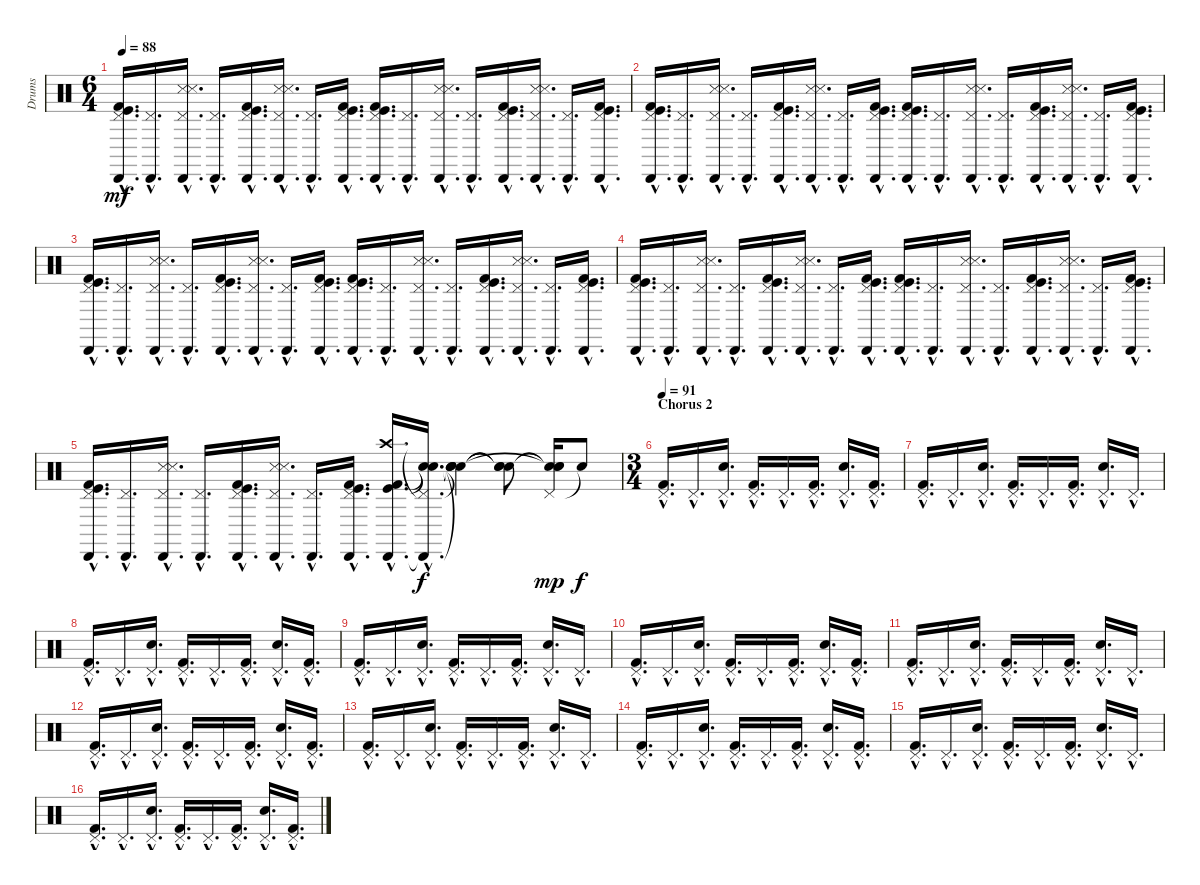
\track ("Drums" "Drums") {instrument percussion}
\staff {score}
\articulation defaults
\ts (6 4)
\tempo 88
\clef neutral
\ks c
("Pedal Hi-Hat (hit)"{hac} "Cabasa (hit)"{hac} "Kick (hit)"{hac} "Kick (hit) 2"{hac}).16{d dy mf} ("Pedal Hi-Hat (hit)"{hac} "Cabasa (hit)"{hac}).16{d} ("Pedal Hi-Hat (hit)"{hac} "Cabasa (hit)"{hac} "Snare (side stick) 3"{hac} "Snare (side stick) 3"{hac}).16{d} ("Pedal Hi-Hat (hit)"{hac} "Cabasa (hit)"{hac}).16{d} ("Pedal Hi-Hat (hit)"{hac} "Cabasa (hit)"{hac} "Kick (hit)"{hac} "Kick (hit) 2"{hac}).16{d} ("Pedal Hi-Hat (hit)"{hac} "Cabasa (hit)"{hac} "Snare (side stick) 3"{hac} "Snare (side stick) 3"{hac}).16{d} ("Pedal Hi-Hat (hit)"{hac} "Cabasa (hit)"{hac}).16{d} ("Pedal Hi-Hat (hit)"{hac} "Cabasa (hit)"{hac} "Kick (hit)"{hac} "Kick (hit) 2"{hac}).16{d} ("Pedal Hi-Hat (hit)"{hac} "Cabasa (hit)"{hac} "Kick (hit)"{hac} "Kick (hit) 2"{hac}).16{d} ("Pedal Hi-Hat (hit)"{hac} "Cabasa (hit)"{hac}).16{d} ("Pedal Hi-Hat (hit)"{hac} "Cabasa (hit)"{hac} "Snare (side stick) 3"{hac} "Snare (side stick) 3"{hac}).16{d} ("Pedal Hi-Hat (hit)"{hac} "Cabasa (hit)"{hac}).16{d} ("Pedal Hi-Hat (hit)"{hac} "Cabasa (hit)"{hac} "Kick (hit)"{hac} "Kick (hit) 2"{hac}).16{d} ("Pedal Hi-Hat (hit)"{hac} "Cabasa (hit)"{hac} "Snare (side stick) 3"{hac} "Snare (side stick) 3"{hac}).16{d} ("Pedal Hi-Hat (hit)"{hac} "Cabasa (hit)"{hac}).16{d} ("Pedal Hi-Hat (hit)"{hac} "Cabasa (hit)"{hac} "Kick (hit)"{hac} "Kick (hit) 2"{hac}).16{d} |
("Pedal Hi-Hat (hit)"{hac} "Cabasa (hit)"{hac} "Kick (hit)"{hac} "Kick (hit) 2"{hac}).16{d} ("Pedal Hi-Hat (hit)"{hac} "Cabasa (hit)"{hac}).16{d} ("Pedal Hi-Hat (hit)"{hac} "Cabasa (hit)"{hac} "Snare (side stick) 3"{hac} "Snare (side stick) 3"{hac}).16{d} ("Pedal Hi-Hat (hit)"{hac} "Cabasa (hit)"{hac}).16{d} ("Pedal Hi-Hat (hit)"{hac} "Cabasa (hit)"{hac} "Kick (hit)"{hac} "Kick (hit) 2"{hac}).16{d} ("Pedal Hi-Hat (hit)"{hac} "Cabasa (hit)"{hac} "Snare (side stick) 3"{hac} "Snare (side stick) 3"{hac}).16{d} ("Pedal Hi-Hat (hit)"{hac} "Cabasa (hit)"{hac}).16{d} ("Pedal Hi-Hat (hit)"{hac} "Cabasa (hit)"{hac} "Kick (hit)"{hac} "Kick (hit) 2"{hac}).16{d} ("Pedal Hi-Hat (hit)"{hac} "Cabasa (hit)"{hac} "Kick (hit)"{hac} "Kick (hit) 2"{hac}).16{d} ("Pedal Hi-Hat (hit)"{hac} "Cabasa (hit)"{hac}).16{d} ("Pedal Hi-Hat (hit)"{hac} "Cabasa (hit)"{hac} "Snare (side stick) 3"{hac} "Snare (side stick) 3"{hac}).16{d} ("Pedal Hi-Hat (hit)"{hac} "Cabasa (hit)"{hac}).16{d} ("Pedal Hi-Hat (hit)"{hac} "Cabasa (hit)"{hac} "Kick (hit)"{hac} "Kick (hit) 2"{hac}).16{d} ("Pedal Hi-Hat (hit)"{hac} "Cabasa (hit)"{hac} "Snare (side stick) 3"{hac} "Snare (side stick) 3"{hac}).16{d} ("Pedal Hi-Hat (hit)"{hac} "Cabasa (hit)"{hac}).16{d} ("Pedal Hi-Hat (hit)"{hac} "Cabasa (hit)"{hac} "Kick (hit)"{hac} "Kick (hit) 2"{hac}).16{d} |
("Pedal Hi-Hat (hit)"{hac} "Cabasa (hit)"{hac} "Kick (hit)"{hac} "Kick (hit) 2"{hac}).16{d} ("Pedal Hi-Hat (hit)"{hac} "Cabasa (hit)"{hac}).16{d} ("Pedal Hi-Hat (hit)"{hac} "Cabasa (hit)"{hac} "Snare (side stick) 3"{hac} "Snare (side stick) 3"{hac}).16{d} ("Pedal Hi-Hat (hit)"{hac} "Cabasa (hit)"{hac}).16{d} ("Pedal Hi-Hat (hit)"{hac} "Cabasa (hit)"{hac} "Kick (hit)"{hac} "Kick (hit) 2"{hac}).16{d} ("Pedal Hi-Hat (hit)"{hac} "Cabasa (hit)"{hac} "Snare (side stick) 3"{hac} "Snare (side stick) 3"{hac}).16{d} ("Pedal Hi-Hat (hit)"{hac} "Cabasa (hit)"{hac}).16{d} ("Pedal Hi-Hat (hit)"{hac} "Cabasa (hit)"{hac} "Kick (hit)"{hac} "Kick (hit) 2"{hac}).16{d} ("Pedal Hi-Hat (hit)"{hac} "Cabasa (hit)"{hac} "Kick (hit)"{hac} "Kick (hit) 2"{hac}).16{d} ("Pedal Hi-Hat (hit)"{hac} "Cabasa (hit)"{hac}).16{d} ("Pedal Hi-Hat (hit)"{hac} "Cabasa (hit)"{hac} "Snare (side stick) 3"{hac} "Snare (side stick) 3"{hac}).16{d} ("Pedal Hi-Hat (hit)"{hac} "Cabasa (hit)"{hac}).16{d} ("Pedal Hi-Hat (hit)"{hac} "Cabasa (hit)"{hac} "Kick (hit)"{hac} "Kick (hit) 2"{hac}).16{d} ("Pedal Hi-Hat (hit)"{hac} "Cabasa (hit)"{hac} "Snare (side stick) 3"{hac} "Snare (side stick) 3"{hac}).16{d} ("Pedal Hi-Hat (hit)"{hac} "Cabasa (hit)"{hac}).16{d} ("Pedal Hi-Hat (hit)"{hac} "Cabasa (hit)"{hac} "Kick (hit)"{hac} "Kick (hit) 2"{hac}).16{d} |
("Pedal Hi-Hat (hit)"{hac} "Cabasa (hit)"{hac} "Kick (hit)"{hac} "Kick (hit) 2"{hac}).16{d} ("Pedal Hi-Hat (hit)"{hac} "Cabasa (hit)"{hac}).16{d} ("Pedal Hi-Hat (hit)"{hac} "Cabasa (hit)"{hac} "Snare (side stick) 3"{hac} "Snare (side stick) 3"{hac}).16{d} ("Pedal Hi-Hat (hit)"{hac} "Cabasa (hit)"{hac}).16{d} ("Pedal Hi-Hat (hit)"{hac} "Cabasa (hit)"{hac} "Kick (hit)"{hac} "Kick (hit) 2"{hac}).16{d} ("Pedal Hi-Hat (hit)"{hac} "Cabasa (hit)"{hac} "Snare (side stick) 3"{hac} "Snare (side stick) 3"{hac}).16{d} ("Pedal Hi-Hat (hit)"{hac} "Cabasa (hit)"{hac}).16{d} ("Pedal Hi-Hat (hit)"{hac} "Cabasa (hit)"{hac} "Kick (hit)"{hac} "Kick (hit) 2"{hac}).16{d} ("Pedal Hi-Hat (hit)"{hac} "Cabasa (hit)"{hac} "Kick (hit)"{hac} "Kick (hit) 2"{hac}).16{d} ("Pedal Hi-Hat (hit)"{hac} "Cabasa (hit)"{hac}).16{d} ("Pedal Hi-Hat (hit)"{hac} "Cabasa (hit)"{hac} "Snare (side stick) 3"{hac} "Snare (side stick) 3"{hac}).16{d} ("Pedal Hi-Hat (hit)"{hac} "Cabasa (hit)"{hac}).16{d} ("Pedal Hi-Hat (hit)"{hac} "Cabasa (hit)"{hac} "Kick (hit)"{hac} "Kick (hit) 2"{hac}).16{d} ("Pedal Hi-Hat (hit)"{hac} "Cabasa (hit)"{hac} "Snare (side stick) 3"{hac} "Snare (side stick) 3"{hac}).16{d} ("Pedal Hi-Hat (hit)"{hac} "Cabasa (hit)"{hac}).16{d} ("Pedal Hi-Hat (hit)"{hac} "Cabasa (hit)"{hac} "Kick (hit)"{hac} "Kick (hit) 2"{hac}).16{d} |
("Pedal Hi-Hat (hit)"{hac} "Cabasa (hit)"{hac} "Kick (hit)"{hac} "Kick (hit) 2"{hac}).16{d} ("Pedal Hi-Hat (hit)"{hac} "Cabasa (hit)"{hac}).16{d} ("Pedal Hi-Hat (hit)"{hac} "Cabasa (hit)"{hac} "Snare (side stick) 3"{hac} "Snare (side stick) 3"{hac}).16{d} ("Pedal Hi-Hat (hit)"{hac} "Cabasa (hit)"{hac}).16{d} ("Pedal Hi-Hat (hit)"{hac} "Cabasa (hit)"{hac} "Kick (hit)"{hac} "Kick (hit) 2"{hac}).16{d} ("Pedal Hi-Hat (hit)"{hac} "Cabasa (hit)"{hac} "Snare (side stick) 3"{hac} "Snare (side stick) 3"{hac}).16{d} ("Pedal Hi-Hat (hit)"{hac} "Cabasa (hit)"{hac}).16{d} ("Pedal Hi-Hat (hit)"{hac} "Cabasa (hit)"{hac} "Kick (hit)"{hac} "Kick (hit) 2"{hac}).16{d} ("Crash high (hit)"{hac} "Cabasa (hit)"{hac} "Kick (hit)"{hac} "Kick (hit) 2"{hac}).16{d} ("Pedal Hi-Hat (hit)"{hac t} "Cabasa (hit)"{hac t} "Snare (hit)"{hac t} "Snare (hit)"{hac t}).16{d dy f} ("Snare (hit)"{t} "Snare (hit)"{t} "Snare (hit)"{t} "Snare (hit)"{t}).4 ("Snare (hit)"{t} "Snare (hit)"{t} "Snare (hit)"{t}).8 ("Pedal Hi-Hat (hit)" "Snare (hit)"{t} "Snare (hit)"{t} "Snare (hit)"{t}).16{dy mp} "Snare (hit)"{t}.8{dy f} |
\ts (3 4)
\section ("" "Chorus 2")
\tempo 91
("Pedal Hi-Hat (hit)"{hac} "Kick (hit) 2"{hac}).16{d volume 16} "Pedal Hi-Hat (hit)"{hac}.16{d} ("Pedal Hi-Hat (hit)"{hac} "Electric Snare (hit)"{hac}).16{d} ("Pedal Hi-Hat (hit)"{hac} "Kick (hit) 2"{hac}).16{d} "Pedal Hi-Hat (hit)"{hac}.16{d} ("Pedal Hi-Hat (hit)"{hac} "Kick (hit) 2"{hac}).16{d} ("Pedal Hi-Hat (hit)"{hac} "Electric Snare (hit)"{hac}).16{d} ("Pedal Hi-Hat (hit)"{hac} "Kick (hit) 2"{hac}).16{d} |
("Pedal Hi-Hat (hit)"{hac} "Kick (hit) 2"{hac}).16{d} "Pedal Hi-Hat (hit)"{hac}.16{d} ("Pedal Hi-Hat (hit)"{hac} "Electric Snare (hit)"{hac}).16{d} ("Pedal Hi-Hat (hit)"{hac} "Kick (hit) 2"{hac}).16{d} "Pedal Hi-Hat (hit)"{hac}.16{d} ("Pedal Hi-Hat (hit)"{hac} "Kick (hit) 2"{hac}).16{d} ("Pedal Hi-Hat (hit)"{hac} "Electric Snare (hit)"{hac}).16{d} "Pedal Hi-Hat (hit)"{hac}.16{d} |
("Pedal Hi-Hat (hit)"{hac} "Kick (hit) 2"{hac}).16{d} "Pedal Hi-Hat (hit)"{hac}.16{d} ("Pedal Hi-Hat (hit)"{hac} "Electric Snare (hit)"{hac}).16{d} ("Pedal Hi-Hat (hit)"{hac} "Kick (hit) 2"{hac}).16{d} "Pedal Hi-Hat (hit)"{hac}.16{d} ("Pedal Hi-Hat (hit)"{hac} "Kick (hit) 2"{hac}).16{d} ("Pedal Hi-Hat (hit)"{hac} "Electric Snare (hit)"{hac}).16{d} ("Pedal Hi-Hat (hit)"{hac} "Kick (hit) 2"{hac}).16{d} |
("Pedal Hi-Hat (hit)"{hac} "Kick (hit) 2"{hac}).16{d} "Pedal Hi-Hat (hit)"{hac}.16{d} ("Pedal Hi-Hat (hit)"{hac} "Electric Snare (hit)"{hac}).16{d} ("Pedal Hi-Hat (hit)"{hac} "Kick (hit) 2"{hac}).16{d} "Pedal Hi-Hat (hit)"{hac}.16{d} ("Pedal Hi-Hat (hit)"{hac} "Kick (hit) 2"{hac}).16{d} ("Pedal Hi-Hat (hit)"{hac} "Electric Snare (hit)"{hac}).16{d} "Pedal Hi-Hat (hit)"{hac}.16{d} |
("Pedal Hi-Hat (hit)"{hac} "Kick (hit) 2"{hac}).16{d} "Pedal Hi-Hat (hit)"{hac}.16{d} ("Pedal Hi-Hat (hit)"{hac} "Electric Snare (hit)"{hac}).16{d} ("Pedal Hi-Hat (hit)"{hac} "Kick (hit) 2"{hac}).16{d} "Pedal Hi-Hat (hit)"{hac}.16{d} ("Pedal Hi-Hat (hit)"{hac} "Kick (hit) 2"{hac}).16{d} ("Pedal Hi-Hat (hit)"{hac} "Electric Snare (hit)"{hac}).16{d} ("Pedal Hi-Hat (hit)"{hac} "Kick (hit) 2"{hac}).16{d} |
("Pedal Hi-Hat (hit)"{hac} "Kick (hit) 2"{hac}).16{d} "Pedal Hi-Hat (hit)"{hac}.16{d} ("Pedal Hi-Hat (hit)"{hac} "Electric Snare (hit)"{hac}).16{d} ("Pedal Hi-Hat (hit)"{hac} "Kick (hit) 2"{hac}).16{d} "Pedal Hi-Hat (hit)"{hac}.16{d} ("Pedal Hi-Hat (hit)"{hac} "Kick (hit) 2"{hac}).16{d} ("Pedal Hi-Hat (hit)"{hac} "Electric Snare (hit)"{hac}).16{d} "Pedal Hi-Hat (hit)"{hac}.16{d} |
("Pedal Hi-Hat (hit)"{hac} "Kick (hit) 2"{hac}).16{d} "Pedal Hi-Hat (hit)"{hac}.16{d} ("Pedal Hi-Hat (hit)"{hac} "Electric Snare (hit)"{hac}).16{d} ("Pedal Hi-Hat (hit)"{hac} "Kick (hit) 2"{hac}).16{d} "Pedal Hi-Hat (hit)"{hac}.16{d} ("Pedal Hi-Hat (hit)"{hac} "Kick (hit) 2"{hac}).16{d} ("Pedal Hi-Hat (hit)"{hac} "Electric Snare (hit)"{hac}).16{d} ("Pedal Hi-Hat (hit)"{hac} "Kick (hit) 2"{hac}).16{d} |
("Pedal Hi-Hat (hit)"{hac} "Kick (hit) 2"{hac}).16{d} "Pedal Hi-Hat (hit)"{hac}.16{d} ("Pedal Hi-Hat (hit)"{hac} "Electric Snare (hit)"{hac}).16{d} ("Pedal Hi-Hat (hit)"{hac} "Kick (hit) 2"{hac}).16{d} "Pedal Hi-Hat (hit)"{hac}.16{d} ("Pedal Hi-Hat (hit)"{hac} "Kick (hit) 2"{hac}).16{d} ("Pedal Hi-Hat (hit)"{hac} "Electric Snare (hit)"{hac}).16{d} "Pedal Hi-Hat (hit)"{hac}.16{d} |
("Pedal Hi-Hat (hit)"{hac} "Kick (hit) 2"{hac}).16{d} "Pedal Hi-Hat (hit)"{hac}.16{d} ("Pedal Hi-Hat (hit)"{hac} "Electric Snare (hit)"{hac}).16{d} ("Pedal Hi-Hat (hit)"{hac} "Kick (hit) 2"{hac}).16{d} "Pedal Hi-Hat (hit)"{hac}.16{d} ("Pedal Hi-Hat (hit)"{hac} "Kick (hit) 2"{hac}).16{d} ("Pedal Hi-Hat (hit)"{hac} "Electric Snare (hit)"{hac}).16{d} ("Pedal Hi-Hat (hit)"{hac} "Kick (hit) 2"{hac}).16{d} |
("Pedal Hi-Hat (hit)"{hac} "Kick (hit) 2"{hac}).16{d} "Pedal Hi-Hat (hit)"{hac}.16{d} ("Pedal Hi-Hat (hit)"{hac} "Electric Snare (hit)"{hac}).16{d} ("Pedal Hi-Hat (hit)"{hac} "Kick (hit) 2"{hac}).16{d} "Pedal Hi-Hat (hit)"{hac}.16{d} ("Pedal Hi-Hat (hit)"{hac} "Kick (hit) 2"{hac}).16{d} ("Pedal Hi-Hat (hit)"{hac} "Electric Snare (hit)"{hac}).16{d} "Pedal Hi-Hat (hit)"{hac}.16{d} |
("Pedal Hi-Hat (hit)"{hac} "Kick (hit) 2"{hac}).16{d} "Pedal Hi-Hat (hit)"{hac}.16{d} ("Pedal Hi-Hat (hit)"{hac} "Electric Snare (hit)"{hac}).16{d} ("Pedal Hi-Hat (hit)"{hac} "Kick (hit) 2"{hac}).16{d} "Pedal Hi-Hat (hit)"{hac}.16{d} ("Pedal Hi-Hat (hit)"{hac} "Kick (hit) 2"{hac}).16{d} ("Pedal Hi-Hat (hit)"{hac} "Electric Snare (hit)"{hac}).16{d} ("Pedal Hi-Hat (hit)"{hac} "Kick (hit) 2"{hac}).16{d}
